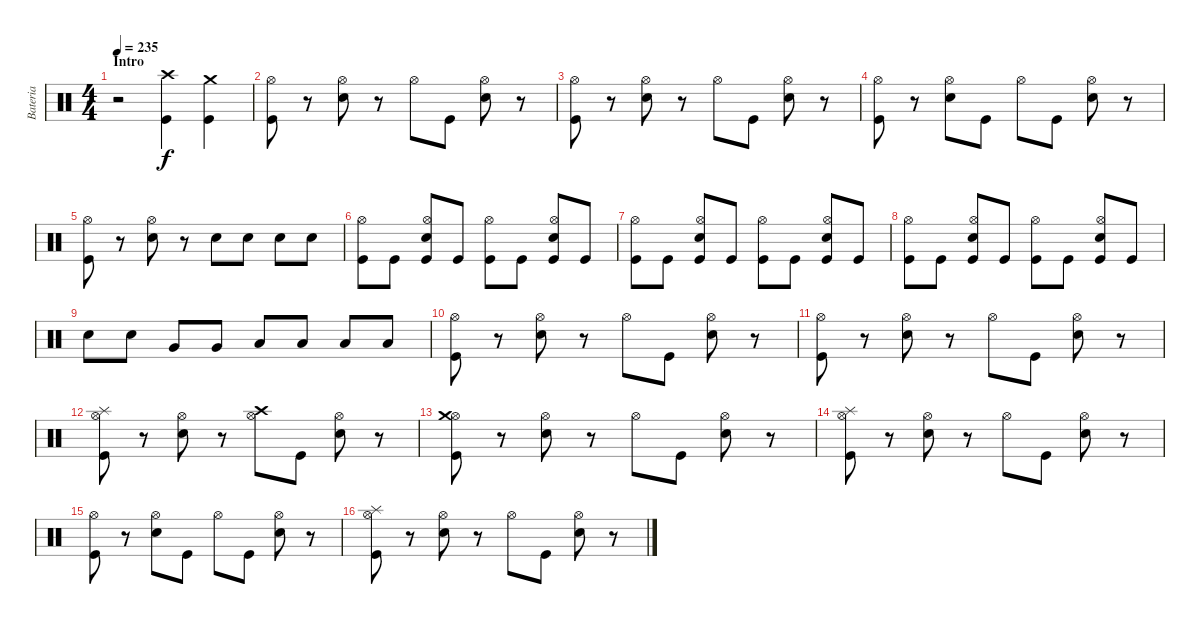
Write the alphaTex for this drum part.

\track ("Bateria" "Bateria") {instrument percussion}
\staff {score}
\articulation defaults
\ts (4 4)
\section ("" "Intro")
\tempo 235
\clef neutral
\ks c
r.2{dy f} ("Kick (hit)" "Crash high (hit)").4 ("Kick (hit)" "Crash medium (hit)").4 |
("Kick (hit)" "Hi-Hat (open)").8 r.8 ("Electric Snare (hit)" "Hi-Hat (open)").8 r.8 "Hi-Hat (open)".8 "Kick (hit)".8 ("Electric Snare (hit)" "Hi-Hat (open)").8 r.8 |
("Kick (hit)" "Hi-Hat (open)").8 r.8 ("Electric Snare (hit)" "Hi-Hat (open)").8 r.8 "Hi-Hat (open)".8 "Kick (hit)".8 ("Electric Snare (hit)" "Hi-Hat (open)").8 r.8 |
("Kick (hit)" "Hi-Hat (open)").8 r.8 ("Electric Snare (hit)" "Hi-Hat (open)").8 "Kick (hit)".8 "Hi-Hat (open)".8 "Kick (hit)".8 ("Electric Snare (hit)" "Hi-Hat (open)").8 r.8 |
("Kick (hit)" "Hi-Hat (open)").8 r.8 ("Electric Snare (hit)" "Hi-Hat (open)").8 r.8 "Electric Snare (hit)".8 "Electric Snare (hit)".8 "Electric Snare (hit)".8 "Electric Snare (hit)".8 |
("Kick (hit)" "Hi-Hat (open)").8 "Kick (hit)".8 ("Kick (hit)" "Electric Snare (hit)" "Hi-Hat (open)").8 "Kick (hit)".8 ("Kick (hit)" "Hi-Hat (open)").8 "Kick (hit)".8 ("Kick (hit)" "Electric Snare (hit)" "Hi-Hat (open)").8 "Kick (hit)".8 |
("Kick (hit)" "Hi-Hat (open)").8 "Kick (hit)".8 ("Kick (hit)" "Electric Snare (hit)" "Hi-Hat (open)").8 "Kick (hit)".8 ("Kick (hit)" "Hi-Hat (open)").8 "Kick (hit)".8 ("Kick (hit)" "Electric Snare (hit)" "Hi-Hat (open)").8 "Kick (hit)".8 |
("Kick (hit)" "Hi-Hat (open)").8 "Kick (hit)".8 ("Kick (hit)" "Electric Snare (hit)" "Hi-Hat (open)").8 "Kick (hit)".8 ("Kick (hit)" "Hi-Hat (open)").8 "Kick (hit)".8 ("Kick (hit)" "Electric Snare (hit)" "Hi-Hat (open)").8 "Kick (hit)".8 |
"Electric Snare (hit)".8 "Electric Snare (hit)".8 "Very Low Tom (hit)".8 "Very Low Tom (hit)".8 "Low Floor Tom (hit)".8 "Low Floor Tom (hit)".8 "Low Tom (hit)".8 "Low Tom (hit)".8 |
("Kick (hit)" "Hi-Hat (open)").8 r.8 ("Electric Snare (hit)" "Hi-Hat (open)").8 r.8 "Hi-Hat (open)".8 "Kick (hit)".8 ("Electric Snare (hit)" "Hi-Hat (open)").8 r.8 |
("Kick (hit)" "Hi-Hat (open)").8 r.8 ("Electric Snare (hit)" "Hi-Hat (open)").8 r.8 "Hi-Hat (open)".8 "Kick (hit)".8 ("Electric Snare (hit)" "Hi-Hat (open)").8 r.8 |
("Kick (hit)" "Hi-Hat (open)" "Splash (hit)").8 r.8 ("Electric Snare (hit)" "Hi-Hat (open)").8 r.8 ("Hi-Hat (open)" "Crash high (hit)").8 "Kick (hit)".8 ("Electric Snare (hit)" "Hi-Hat (open)").8 r.8 |
("Kick (hit)" "Hi-Hat (open)" "Crash medium (hit)").8 r.8 ("Electric Snare (hit)" "Hi-Hat (open)").8 r.8 "Hi-Hat (open)".8 "Kick (hit)".8 ("Electric Snare (hit)" "Hi-Hat (open)").8 r.8 |
("Kick (hit)" "Hi-Hat (open)" "Splash (hit)").8 r.8 ("Electric Snare (hit)" "Hi-Hat (open)").8 r.8 "Hi-Hat (open)".8 "Kick (hit)".8 ("Electric Snare (hit)" "Hi-Hat (open)").8 r.8 |
("Kick (hit)" "Hi-Hat (open)").8 r.8 ("Electric Snare (hit)" "Hi-Hat (open)").8 "Kick (hit)".8 "Hi-Hat (open)".8 "Kick (hit)".8 ("Electric Snare (hit)" "Hi-Hat (open)").8 r.8 |
("Kick (hit)" "Hi-Hat (open)" "Splash (hit)").8 r.8 ("Electric Snare (hit)" "Hi-Hat (open)").8 r.8 "Hi-Hat (open)".8 "Kick (hit)".8 ("Electric Snare (hit)" "Hi-Hat (open)").8 r.8
